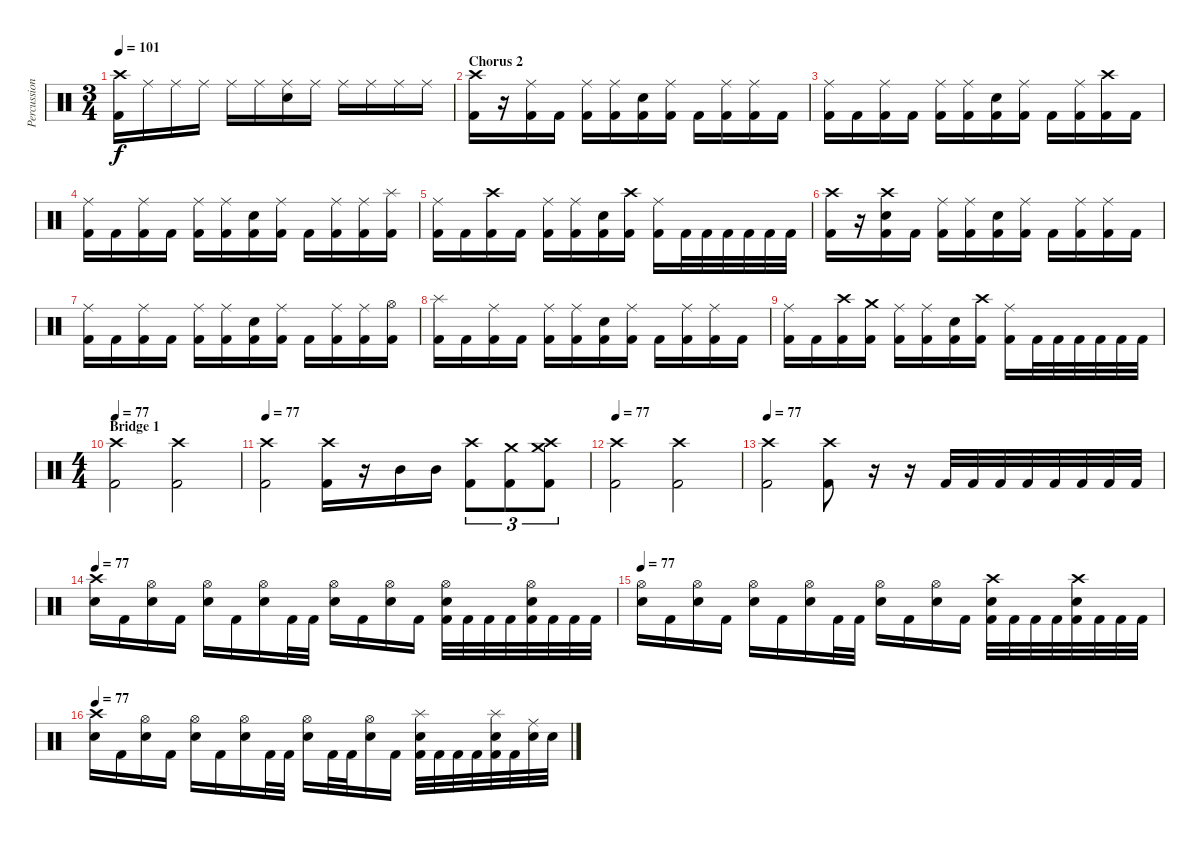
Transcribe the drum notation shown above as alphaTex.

\track ("Percussion" "Percussion") {instrument percussion}
\staff {score}
\articulation defaults
\ts (3 4)
\tempo 101
\clef neutral
\ks c
("Crash high (hit)" "Kick (hit) 2").16{dy f} "Ride (middle)".16 "Ride (middle)".16 "Ride (middle)".16 "Ride (middle)".16 "Ride (middle)".16 ("Ride (middle)" "Electric Snare (hit)").16 "Ride (middle)".16 "Ride (middle)".16 "Ride (middle)".16 "Ride (middle)".16 "Ride (middle)".16 |
\section ("" "Chorus 2")
("Crash high (hit)" "Kick (hit) 2").16 r.16 ("Ride (middle)" "Kick (hit) 2").16 "Kick (hit) 2".16 ("Ride (middle)" "Kick (hit) 2").16 ("Ride (middle)" "Kick (hit) 2").16 ("Electric Snare (hit)" "Kick (hit) 2").16 ("Ride (middle)" "Kick (hit) 2").16 "Kick (hit) 2".16 ("Ride (middle)" "Kick (hit) 2").16 ("Ride (middle)" "Kick (hit) 2").16 "Kick (hit) 2".16 |
("Ride (middle)" "Kick (hit) 2").16 "Kick (hit) 2".16 ("Ride (middle)" "Kick (hit) 2").16 "Kick (hit) 2".16 ("Ride (middle)" "Kick (hit) 2").16 ("Ride (middle)" "Kick (hit) 2").16 ("Electric Snare (hit)" "Kick (hit) 2").16 ("Ride (middle)" "Kick (hit) 2").16 "Kick (hit) 2".16 ("Ride (middle)" "Kick (hit) 2").16 ("Crash high (hit)" "Kick (hit) 2").16 "Kick (hit) 2".16 |
("Ride (middle)" "Kick (hit) 2").16 "Kick (hit) 2".16 ("Ride (middle)" "Kick (hit) 2").16 "Kick (hit) 2".16 ("Ride (middle)" "Kick (hit) 2").16 ("Ride (middle)" "Kick (hit) 2").16 ("Electric Snare (hit)" "Kick (hit) 2").16 ("Ride (middle)" "Kick (hit) 2").16 "Kick (hit) 2".16 ("Ride (middle)" "Kick (hit) 2").16 ("Ride (middle)" "Kick (hit) 2").16 ("Splash (hit)" "Kick (hit) 2").16 |
("Ride (middle)" "Kick (hit) 2").16 "Kick (hit) 2".16 ("Crash high (hit)" "Kick (hit) 2").16 "Kick (hit) 2".16 ("Ride (middle)" "Kick (hit) 2").16 ("Ride (middle)" "Kick (hit) 2").16 ("Electric Snare (hit)" "Kick (hit) 2").16 ("Crash high (hit)" "Kick (hit) 2").16 ("Ride (middle)" "Kick (hit) 2").16 "Kick (hit) 2".32 "Kick (hit) 2".32 "Kick (hit) 2".32 "Kick (hit) 2".32 "Kick (hit) 2".32 "Kick (hit) 2".32 |
("Crash high (hit)" "Kick (hit) 2").16 r.16 ("Crash high (hit)" "Electric Snare (hit)" "Kick (hit) 2").16 "Kick (hit) 2".16 ("Ride (middle)" "Kick (hit) 2").16 ("Ride (middle)" "Kick (hit) 2").16 ("Electric Snare (hit)" "Kick (hit) 2").16 ("Ride (middle)" "Kick (hit) 2").16 "Kick (hit) 2".16 ("Ride (middle)" "Kick (hit) 2").16 ("Ride (middle)" "Kick (hit) 2").16 "Kick (hit) 2".16 |
("Ride (middle)" "Kick (hit) 2").16 "Kick (hit) 2".16 ("Ride (middle)" "Kick (hit) 2").16 "Kick (hit) 2".16 ("Ride (middle)" "Kick (hit) 2").16 ("Ride (middle)" "Kick (hit) 2").16 ("Electric Snare (hit)" "Kick (hit) 2").16 ("Ride (middle)" "Kick (hit) 2").16 "Kick (hit) 2".16 ("Ride (middle)" "Kick (hit) 2").16 ("Ride (middle)" "Kick (hit) 2").16 ("Hi-Hat (open)" "Kick (hit) 2").16 |
("Splash (hit)" "Kick (hit) 2").16 "Kick (hit) 2".16 ("Ride (middle)" "Kick (hit) 2").16 "Kick (hit) 2".16 ("Ride (middle)" "Kick (hit) 2").16 ("Ride (middle)" "Kick (hit) 2").16 ("Electric Snare (hit)" "Kick (hit) 2").16 ("Ride (middle)" "Kick (hit) 2").16 "Kick (hit) 2".16 ("Ride (middle)" "Kick (hit) 2").16 ("Ride (middle)" "Kick (hit) 2").16 "Kick (hit) 2".16 |
("Ride (middle)" "Kick (hit) 2").16 "Kick (hit) 2".16 ("Crash high (hit)" "Kick (hit) 2").16 ("Crash medium (hit)" "Kick (hit) 2").16 ("Ride (middle)" "Kick (hit) 2").16 ("Ride (middle)" "Kick (hit) 2").16 ("Electric Snare (hit)" "Kick (hit) 2").16 ("Crash high (hit)" "Kick (hit) 2").16 ("Ride (middle)" "Kick (hit) 2").16 "Kick (hit) 2".32 "Kick (hit) 2".32 "Kick (hit) 2".32 "Kick (hit) 2".32 "Kick (hit) 2".32 "Kick (hit) 2".32 |
\ts (4 4)
\section ("" "Bridge 1")
\tempo 77
("Crash high (hit)" "Kick (hit) 2").2 ("Crash high (hit)" "Kick (hit) 2").2 |
\tempo 77
("Crash high (hit)" "Kick (hit) 2").2 ("Crash high (hit)" "Kick (hit) 2").16 r.16 "Mid Tom (hit)".16 "Mid Tom (hit)".16 ("Crash high (hit)" "Kick (hit) 2").8{tu (3 2)} ("Crash medium (hit)" "Kick (hit) 2").8{tu (3 2)} ("Crash medium (hit)" "Crash high (hit)" "Kick (hit) 2").8{tu (3 2)} |
\tempo 77
("Crash high (hit)" "Kick (hit) 2").2 ("Crash high (hit)" "Kick (hit) 2").2 |
\tempo 77
("Crash high (hit)" "Kick (hit) 2").2 ("Crash high (hit)" "Kick (hit) 2").8 r.16 r.16 "Kick (hit) 2".32 "Kick (hit) 2".32 "Kick (hit) 2".32 "Kick (hit) 2".32 "Kick (hit) 2".32 "Kick (hit) 2".32 "Kick (hit) 2".32 "Kick (hit) 2".32 |
\tempo 77
("Crash high (hit)" "Electric Snare (hit)").16 "Kick (hit) 2".16 ("Hi-Hat (open)" "Electric Snare (hit)").16 "Kick (hit) 2".16 ("Hi-Hat (open)" "Electric Snare (hit)").16 "Kick (hit) 2".16 ("Hi-Hat (open)" "Electric Snare (hit)").16 "Kick (hit) 2".32 "Kick (hit) 2".32 ("Hi-Hat (open)" "Electric Snare (hit)").16 "Kick (hit) 2".16 ("Hi-Hat (open)" "Electric Snare (hit)").16 "Kick (hit) 2".16 ("Hi-Hat (open)" "Electric Snare (hit)" "Kick (hit) 2").32 "Kick (hit) 2".32 "Kick (hit) 2".32 "Kick (hit) 2".32 ("Hi-Hat (open)" "Electric Snare (hit)" "Kick (hit) 2").32 "Kick (hit) 2".32 "Kick (hit) 2".32 "Kick (hit) 2".32 |
\tempo 77
("Hi-Hat (open)" "Electric Snare (hit)").16 "Kick (hit) 2".16 ("Hi-Hat (open)" "Electric Snare (hit)").16 "Kick (hit) 2".16 ("Hi-Hat (open)" "Electric Snare (hit)").16 "Kick (hit) 2".16 ("Hi-Hat (open)" "Electric Snare (hit)").16 "Kick (hit) 2".32 "Kick (hit) 2".32 ("Hi-Hat (open)" "Electric Snare (hit)").16 "Kick (hit) 2".16 ("Hi-Hat (open)" "Electric Snare (hit)").16 "Kick (hit) 2".16 ("Crash high (hit)" "Electric Snare (hit)" "Kick (hit) 2").32 "Kick (hit) 2".32 "Kick (hit) 2".32 "Kick (hit) 2".32 ("Crash high (hit)" "Electric Snare (hit)" "Kick (hit) 2").32 "Kick (hit) 2".32 "Kick (hit) 2".32 "Kick (hit) 2".32 |
\tempo 77
("Crash high (hit)" "Electric Snare (hit)").16 "Kick (hit) 2".16 ("Hi-Hat (open)" "Electric Snare (hit)").16 "Kick (hit) 2".16 ("Hi-Hat (open)" "Electric Snare (hit)").16 "Kick (hit) 2".16 ("Hi-Hat (open)" "Electric Snare (hit)").16 "Kick (hit) 2".32 "Kick (hit) 2".32 ("Hi-Hat (open)" "Electric Snare (hit)").16 "Kick (hit) 2".32 "Kick (hit) 2".32 ("Hi-Hat (open)" "Electric Snare (hit)").16 "Kick (hit) 2".16 ("Splash (hit)" "Electric Snare (hit)" "Kick (hit) 2").32 "Kick (hit) 2".32 "Kick (hit) 2".32 "Kick (hit) 2".32 ("Splash (hit)" "Electric Snare (hit)" "Kick (hit) 2").32 "Kick (hit) 2".32 ("Ride (middle)" "Electric Snare (hit)").32 "Electric Snare (hit)".32
